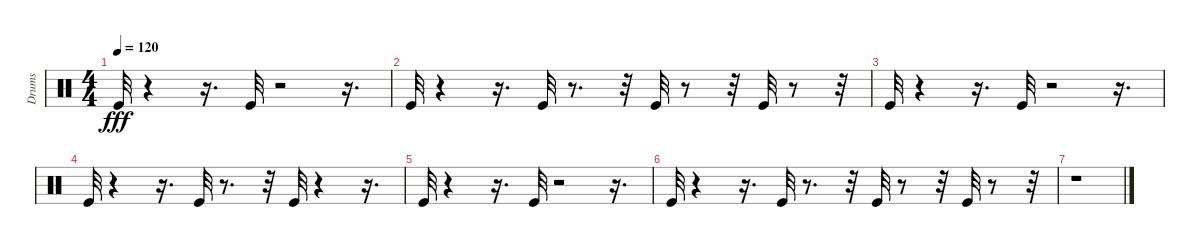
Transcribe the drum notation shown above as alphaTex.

\track ("Drums" "Drums") {instrument percussion}
\staff {score}
\articulation defaults
\ts (4 4)
\tempo 120
\clef neutral
\ks c "Kick (hit)".32{dy fff}
r.4 r.16{d} "Kick (hit)".32 r.2 r.16{d} |
"Kick (hit)".32 r.4 r.16{d} "Kick (hit)".32 r.8{d} r.32 "Kick (hit)".32 r.8 r.32 "Kick (hit)".32 r.8 r.32 |
"Kick (hit)".32 r.4 r.16{d} "Kick (hit)".32 r.2 r.16{d} |
"Kick (hit)".32 r.4 r.16{d} "Kick (hit)".32 r.8{d} r.32 "Kick (hit)".32 r.4 r.16{d} |
"Kick (hit)".32 r.4 r.16{d} "Kick (hit)".32 r.2 r.16{d} |
"Kick (hit)".32 r.4 r.16{d} "Kick (hit)".32 r.8{d} r.32 "Kick (hit)".32 r.8 r.32 "Kick (hit)".32 r.8 r.32 |
r.1
